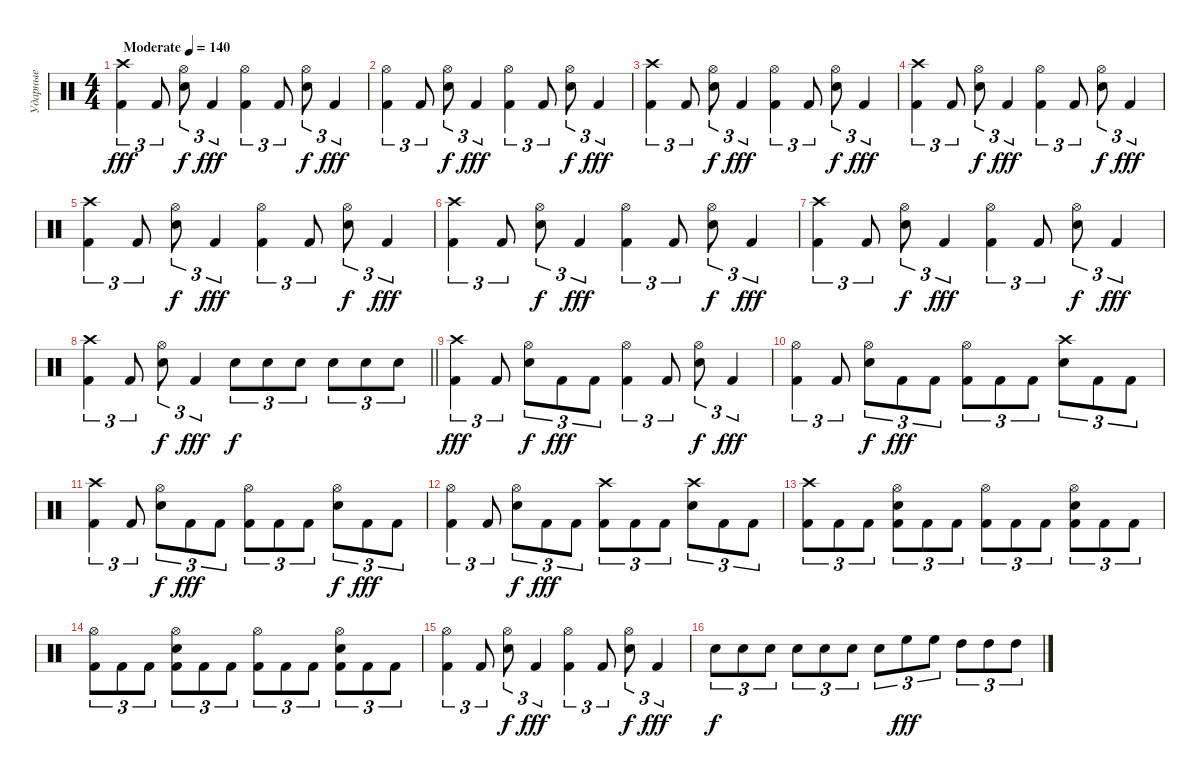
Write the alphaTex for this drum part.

\track ("Ударные" "Ударные") {instrument percussion}
\staff {score}
\articulation defaults
\ts (4 4)
\tempo (140 "Moderate")
\clef neutral
\ks c
("Kick (hit) 2" "Crash high (hit)").4{tu (3 2) dy fff} "Kick (hit) 2".8{tu (3 2)} ("Snare (hit) 2" "Hi-Hat (open)").8{tu (3 2) dy f} "Kick (hit) 2".4{tu (3 2) dy fff} ("Kick (hit) 2" "Hi-Hat (open)").4{tu (3 2)} "Kick (hit) 2".8{tu (3 2)} ("Snare (hit) 2" "Hi-Hat (open)").8{tu (3 2) dy f} "Kick (hit) 2".4{tu (3 2) dy fff} |
("Kick (hit) 2" "Hi-Hat (open)").4{tu (3 2)} "Kick (hit) 2".8{tu (3 2)} ("Snare (hit) 2" "Hi-Hat (open)").8{tu (3 2) dy f} "Kick (hit) 2".4{tu (3 2) dy fff} ("Kick (hit) 2" "Hi-Hat (open)").4{tu (3 2)} "Kick (hit) 2".8{tu (3 2)} ("Snare (hit) 2" "Hi-Hat (open)").8{tu (3 2) dy f} "Kick (hit) 2".4{tu (3 2) dy fff} |
("Kick (hit) 2" "Crash high (hit)").4{tu (3 2)} "Kick (hit) 2".8{tu (3 2)} ("Snare (hit) 2" "Hi-Hat (open)").8{tu (3 2) dy f} "Kick (hit) 2".4{tu (3 2) dy fff} ("Kick (hit) 2" "Hi-Hat (open)").4{tu (3 2)} "Kick (hit) 2".8{tu (3 2)} ("Snare (hit) 2" "Hi-Hat (open)").8{tu (3 2) dy f} "Kick (hit) 2".4{tu (3 2) dy fff} |
("Kick (hit) 2" "Crash high (hit)").4{tu (3 2)} "Kick (hit) 2".8{tu (3 2)} ("Snare (hit) 2" "Hi-Hat (open)").8{tu (3 2) dy f} "Kick (hit) 2".4{tu (3 2) dy fff} ("Kick (hit) 2" "Hi-Hat (open)").4{tu (3 2)} "Kick (hit) 2".8{tu (3 2)} ("Snare (hit) 2" "Hi-Hat (open)").8{tu (3 2) dy f} "Kick (hit) 2".4{tu (3 2) dy fff} |
("Kick (hit) 2" "Crash high (hit)").4{tu (3 2)} "Kick (hit) 2".8{tu (3 2)} ("Snare (hit) 2" "Hi-Hat (open)").8{tu (3 2) dy f} "Kick (hit) 2".4{tu (3 2) dy fff} ("Kick (hit) 2" "Hi-Hat (open)").4{tu (3 2)} "Kick (hit) 2".8{tu (3 2)} ("Snare (hit) 2" "Hi-Hat (open)").8{tu (3 2) dy f} "Kick (hit) 2".4{tu (3 2) dy fff} |
("Kick (hit) 2" "Crash high (hit)").4{tu (3 2)} "Kick (hit) 2".8{tu (3 2)} ("Snare (hit) 2" "Hi-Hat (open)").8{tu (3 2) dy f} "Kick (hit) 2".4{tu (3 2) dy fff} ("Kick (hit) 2" "Hi-Hat (open)").4{tu (3 2)} "Kick (hit) 2".8{tu (3 2)} ("Snare (hit) 2" "Hi-Hat (open)").8{tu (3 2) dy f} "Kick (hit) 2".4{tu (3 2) dy fff} |
("Kick (hit) 2" "Crash high (hit)").4{tu (3 2)} "Kick (hit) 2".8{tu (3 2)} ("Snare (hit) 2" "Hi-Hat (open)").8{tu (3 2) dy f} "Kick (hit) 2".4{tu (3 2) dy fff} ("Kick (hit) 2" "Hi-Hat (open)").4{tu (3 2)} "Kick (hit) 2".8{tu (3 2)} ("Snare (hit) 2" "Hi-Hat (open)").8{tu (3 2) dy f} "Kick (hit) 2".4{tu (3 2) dy fff} |
\barLineRight lightlight
("Kick (hit) 2" "Crash high (hit)").4{tu (3 2)} "Kick (hit) 2".8{tu (3 2)} ("Snare (hit) 2" "Hi-Hat (open)").8{tu (3 2) dy f} "Kick (hit) 2".4{tu (3 2) dy fff} "Snare (hit) 2".8{tu (3 2) dy f} "Snare (hit) 2".8{tu (3 2)} "Snare (hit) 2".8{tu (3 2)} "Snare (hit) 2".8{tu (3 2)} "Snare (hit) 2".8{tu (3 2)} "Snare (hit) 2".8{tu (3 2)} |
("Kick (hit) 2" "Crash high (hit)").4{tu (3 2) dy fff} "Kick (hit) 2".8{tu (3 2)} ("Snare (hit) 2" "Hi-Hat (open)").8{tu (3 2) dy f} "Kick (hit) 2".8{tu (3 2) dy fff} "Kick (hit) 2".8{tu (3 2)} ("Kick (hit) 2" "Hi-Hat (open)").4{tu (3 2)} "Kick (hit) 2".8{tu (3 2)} ("Snare (hit) 2" "Hi-Hat (open)").8{tu (3 2) dy f} "Kick (hit) 2".4{tu (3 2) dy fff} |
("Kick (hit) 2" "Hi-Hat (open)").4{tu (3 2)} "Kick (hit) 2".8{tu (3 2)} ("Snare (hit) 2" "Hi-Hat (open)").8{tu (3 2) dy f} "Kick (hit) 2".8{tu (3 2) dy fff} "Kick (hit) 2".8{tu (3 2)} ("Kick (hit) 2" "Hi-Hat (open)").8{tu (3 2)} "Kick (hit) 2".8{tu (3 2)} "Kick (hit) 2".8{tu (3 2)} ("Snare (hit) 2" "Crash high (hit)").8{tu (3 2)} "Kick (hit) 2".8{tu (3 2)} "Kick (hit) 2".8{tu (3 2)} |
("Kick (hit) 2" "Crash high (hit)").4{tu (3 2)} "Kick (hit) 2".8{tu (3 2)} ("Snare (hit) 2" "Hi-Hat (open)").8{tu (3 2) dy f} "Kick (hit) 2".8{tu (3 2) dy fff} "Kick (hit) 2".8{tu (3 2)} ("Kick (hit) 2" "Hi-Hat (open)").8{tu (3 2)} "Kick (hit) 2".8{tu (3 2)} "Kick (hit) 2".8{tu (3 2)} ("Snare (hit) 2" "Hi-Hat (open)").8{tu (3 2) dy f} "Kick (hit) 2".8{tu (3 2) dy fff} "Kick (hit) 2".8{tu (3 2)} |
("Kick (hit) 2" "Hi-Hat (open)").4{tu (3 2)} "Kick (hit) 2".8{tu (3 2)} ("Snare (hit) 2" "Hi-Hat (open)").8{tu (3 2) dy f} "Kick (hit) 2".8{tu (3 2) dy fff} "Kick (hit) 2".8{tu (3 2)} ("Kick (hit) 2" "Crash high (hit)").8{tu (3 2)} "Kick (hit) 2".8{tu (3 2)} "Kick (hit) 2".8{tu (3 2)} ("Snare (hit) 2" "Crash high (hit)").8{tu (3 2)} "Kick (hit) 2".8{tu (3 2)} "Kick (hit) 2".8{tu (3 2)} |
("Kick (hit) 2" "Crash high (hit)").8{tu (3 2)} "Kick (hit) 2".8{tu (3 2)} "Kick (hit) 2".8{tu (3 2)} ("Kick (hit) 2" "Snare (hit) 2" "Hi-Hat (open)").8{tu (3 2)} "Kick (hit) 2".8{tu (3 2)} "Kick (hit) 2".8{tu (3 2)} ("Kick (hit) 2" "Hi-Hat (open)").8{tu (3 2)} "Kick (hit) 2".8{tu (3 2)} "Kick (hit) 2".8{tu (3 2)} ("Kick (hit) 2" "Snare (hit) 2" "Hi-Hat (open)").8{tu (3 2)} "Kick (hit) 2".8{tu (3 2)} "Kick (hit) 2".8{tu (3 2)} |
("Kick (hit) 2" "Hi-Hat (open)").8{tu (3 2)} "Kick (hit) 2".8{tu (3 2)} "Kick (hit) 2".8{tu (3 2)} ("Kick (hit) 2" "Snare (hit) 2" "Hi-Hat (open)").8{tu (3 2)} "Kick (hit) 2".8{tu (3 2)} "Kick (hit) 2".8{tu (3 2)} ("Kick (hit) 2" "Hi-Hat (open)").8{tu (3 2)} "Kick (hit) 2".8{tu (3 2)} "Kick (hit) 2".8{tu (3 2)} ("Kick (hit) 2" "Snare (hit) 2" "Hi-Hat (open)").8{tu (3 2)} "Kick (hit) 2".8{tu (3 2)} "Kick (hit) 2".8{tu (3 2)} |
("Kick (hit) 2" "Hi-Hat (open)").4{tu (3 2)} "Kick (hit) 2".8{tu (3 2)} ("Snare (hit) 2" "Hi-Hat (open)").8{tu (3 2) dy f} "Kick (hit) 2".4{tu (3 2) dy fff} ("Kick (hit) 2" "Hi-Hat (open)").4{tu (3 2)} "Kick (hit) 2".8{tu (3 2)} ("Snare (hit) 2" "Hi-Hat (open)").8{tu (3 2) dy f} "Kick (hit) 2".4{tu (3 2) dy fff} |
"Snare (hit) 2".8{tu (3 2) dy f} "Electric Snare (hit)".8{tu (3 2)} "Electric Snare (hit)".8{tu (3 2)} "Electric Snare (hit)".8{tu (3 2)} "Snare (hit) 2".8{tu (3 2)} "Electric Snare (hit)".8{tu (3 2)} "Snare (hit) 2".8{tu (3 2)} "High Floor Tom (hit)".8{tu (3 2) dy fff} "High Floor Tom (hit)".8{tu (3 2)} "High Tom (hit)".8{tu (3 2)} "High Tom (hit)".8{tu (3 2)} "High Tom (hit)".8{tu (3 2)}
